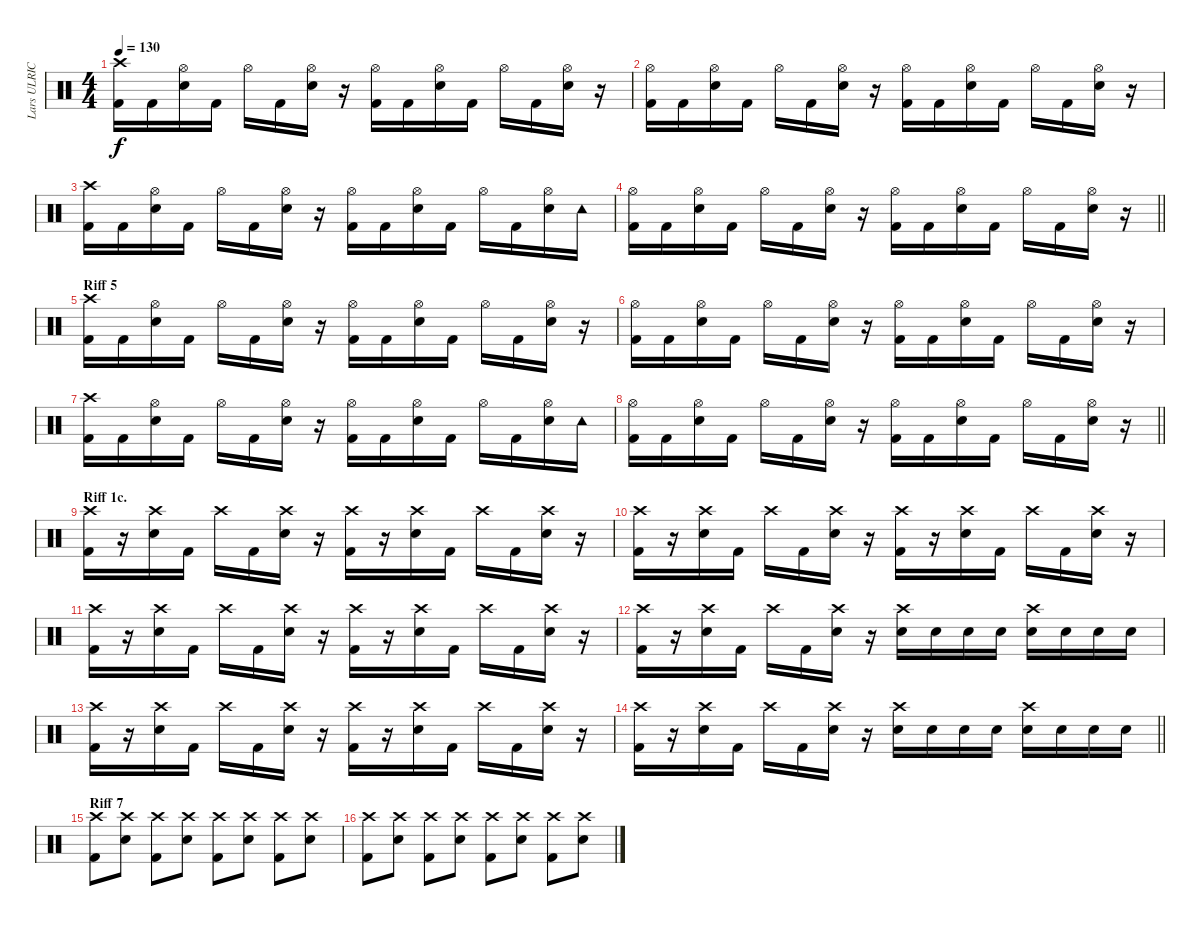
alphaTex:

\track ("Lars ULRICH" "Lars ULRIC") {instrument percussion}
\staff {score}
\articulation defaults
\ts (4 4)
\tempo 130
\clef neutral
\ks c
("Crash high (hit)" "Kick (hit) 2").16{dy f} "Kick (hit) 2".16 ("Hi-Hat (open)" "Snare (hit) 2").16 "Kick (hit) 2".16 "Hi-Hat (open)".16 "Kick (hit) 2".16 ("Hi-Hat (open)" "Snare (hit) 2").16 r.16 ("Hi-Hat (open)" "Kick (hit) 2").16 "Kick (hit) 2".16 ("Hi-Hat (open)" "Snare (hit) 2").16 "Kick (hit) 2".16 "Hi-Hat (open)".16 "Kick (hit) 2".16 ("Hi-Hat (open)" "Snare (hit) 2").16 r.16 |
("Hi-Hat (open)" "Kick (hit) 2").16 "Kick (hit) 2".16 ("Hi-Hat (open)" "Snare (hit) 2").16 "Kick (hit) 2".16 "Hi-Hat (open)".16 "Kick (hit) 2".16 ("Hi-Hat (open)" "Snare (hit) 2").16 r.16 ("Hi-Hat (open)" "Kick (hit) 2").16 "Kick (hit) 2".16 ("Hi-Hat (open)" "Snare (hit) 2").16 "Kick (hit) 2".16 "Hi-Hat (open)".16 "Kick (hit) 2".16 ("Hi-Hat (open)" "Snare (hit) 2").16 r.16 |
("Crash high (hit)" "Kick (hit) 2").16 "Kick (hit) 2".16 ("Hi-Hat (open)" "Snare (hit) 2").16 "Kick (hit) 2".16 "Hi-Hat (open)".16 "Kick (hit) 2".16 ("Hi-Hat (open)" "Snare (hit) 2").16 r.16 ("Hi-Hat (open)" "Kick (hit) 2").16 "Kick (hit) 2".16 ("Hi-Hat (open)" "Snare (hit) 2").16 "Kick (hit) 2".16 "Hi-Hat (open)".16 "Kick (hit) 2".16 ("Hi-Hat (open)" "Snare (hit) 2").16 "Tambourine (hit)".16 |
\barLineRight lightlight
("Hi-Hat (open)" "Kick (hit) 2").16 "Kick (hit) 2".16 ("Hi-Hat (open)" "Snare (hit) 2").16 "Kick (hit) 2".16 "Hi-Hat (open)".16 "Kick (hit) 2".16 ("Hi-Hat (open)" "Snare (hit) 2").16 r.16 ("Hi-Hat (open)" "Kick (hit) 2").16 "Kick (hit) 2".16 ("Hi-Hat (open)" "Snare (hit) 2").16 "Kick (hit) 2".16 "Hi-Hat (open)".16 "Kick (hit) 2".16 ("Hi-Hat (open)" "Snare (hit) 2").16 r.16 |
\section ("" "Riff 5")
("Crash high (hit)" "Kick (hit) 2").16 "Kick (hit) 2".16 ("Hi-Hat (open)" "Snare (hit) 2").16 "Kick (hit) 2".16 "Hi-Hat (open)".16 "Kick (hit) 2".16 ("Hi-Hat (open)" "Snare (hit) 2").16 r.16 ("Hi-Hat (open)" "Kick (hit) 2").16 "Kick (hit) 2".16 ("Hi-Hat (open)" "Snare (hit) 2").16 "Kick (hit) 2".16 "Hi-Hat (open)".16 "Kick (hit) 2".16 ("Hi-Hat (open)" "Snare (hit) 2").16 r.16 |
("Hi-Hat (open)" "Kick (hit) 2").16 "Kick (hit) 2".16 ("Hi-Hat (open)" "Snare (hit) 2").16 "Kick (hit) 2".16 "Hi-Hat (open)".16 "Kick (hit) 2".16 ("Hi-Hat (open)" "Snare (hit) 2").16 r.16 ("Hi-Hat (open)" "Kick (hit) 2").16 "Kick (hit) 2".16 ("Hi-Hat (open)" "Snare (hit) 2").16 "Kick (hit) 2".16 "Hi-Hat (open)".16 "Kick (hit) 2".16 ("Hi-Hat (open)" "Snare (hit) 2").16 r.16 |
("Crash high (hit)" "Kick (hit) 2").16 "Kick (hit) 2".16 ("Hi-Hat (open)" "Snare (hit) 2").16 "Kick (hit) 2".16 "Hi-Hat (open)".16 "Kick (hit) 2".16 ("Hi-Hat (open)" "Snare (hit) 2").16 r.16 ("Hi-Hat (open)" "Kick (hit) 2").16 "Kick (hit) 2".16 ("Hi-Hat (open)" "Snare (hit) 2").16 "Kick (hit) 2".16 "Hi-Hat (open)".16 "Kick (hit) 2".16 ("Hi-Hat (open)" "Snare (hit) 2").16 "Tambourine (hit)".16 |
\barLineRight lightlight
("Hi-Hat (open)" "Kick (hit) 2").16 "Kick (hit) 2".16 ("Hi-Hat (open)" "Snare (hit) 2").16 "Kick (hit) 2".16 "Hi-Hat (open)".16 "Kick (hit) 2".16 ("Hi-Hat (open)" "Snare (hit) 2").16 r.16 ("Hi-Hat (open)" "Kick (hit) 2").16 "Kick (hit) 2".16 ("Hi-Hat (open)" "Snare (hit) 2").16 "Kick (hit) 2".16 "Hi-Hat (open)".16 "Kick (hit) 2".16 ("Hi-Hat (open)" "Snare (hit) 2").16 r.16 |
\section ("" "Riff 1c.")
("Crash high (hit)" "Kick (hit) 2").16 r.16 ("Crash high (hit)" "Snare (hit) 2").16 "Kick (hit) 2".16 "Crash high (hit)".16 "Kick (hit) 2".16 ("Crash high (hit)" "Snare (hit) 2").16 r.16 ("Crash high (hit)" "Kick (hit) 2").16 r.16 ("Crash high (hit)" "Snare (hit) 2").16 "Kick (hit) 2".16 "Crash high (hit)".16 "Kick (hit) 2".16 ("Crash high (hit)" "Snare (hit) 2").16 r.16 |
("Crash high (hit)" "Kick (hit) 2").16 r.16 ("Crash high (hit)" "Snare (hit) 2").16 "Kick (hit) 2".16 "Crash high (hit)".16 "Kick (hit) 2".16 ("Crash high (hit)" "Snare (hit) 2").16 r.16 ("Crash high (hit)" "Kick (hit) 2").16 r.16 ("Crash high (hit)" "Snare (hit) 2").16 "Kick (hit) 2".16 "Crash high (hit)".16 "Kick (hit) 2".16 ("Crash high (hit)" "Snare (hit) 2").16 r.16 |
("Crash high (hit)" "Kick (hit) 2").16 r.16 ("Crash high (hit)" "Snare (hit) 2").16 "Kick (hit) 2".16 "Crash high (hit)".16 "Kick (hit) 2".16 ("Crash high (hit)" "Snare (hit) 2").16 r.16 ("Crash high (hit)" "Kick (hit) 2").16 r.16 ("Crash high (hit)" "Snare (hit) 2").16 "Kick (hit) 2".16 "Crash high (hit)".16 "Kick (hit) 2".16 ("Crash high (hit)" "Snare (hit) 2").16 r.16 |
("Crash high (hit)" "Kick (hit) 2").16 r.16 ("Crash high (hit)" "Snare (hit) 2").16 "Kick (hit) 2".16 "Crash high (hit)".16 "Kick (hit) 2".16 ("Crash high (hit)" "Snare (hit) 2").16 r.16 ("Crash high (hit)" "Snare (hit) 2").16 "Snare (hit) 2".16 "Snare (hit) 2".16 "Snare (hit) 2".16 ("Crash high (hit)" "Snare (hit) 2").16 "Snare (hit) 2".16 "Snare (hit) 2".16 "Snare (hit) 2".16 |
("Crash high (hit)" "Kick (hit) 2").16 r.16 ("Crash high (hit)" "Snare (hit) 2").16 "Kick (hit) 2".16 "Crash high (hit)".16 "Kick (hit) 2".16 ("Crash high (hit)" "Snare (hit) 2").16 r.16 ("Crash high (hit)" "Kick (hit) 2").16 r.16 ("Crash high (hit)" "Snare (hit) 2").16 "Kick (hit) 2".16 "Crash high (hit)".16 "Kick (hit) 2".16 ("Crash high (hit)" "Snare (hit) 2").16 r.16 |
\barLineRight lightlight
("Crash high (hit)" "Kick (hit) 2").16 r.16 ("Crash high (hit)" "Snare (hit) 2").16 "Kick (hit) 2".16 "Crash high (hit)".16 "Kick (hit) 2".16 ("Crash high (hit)" "Snare (hit) 2").16 r.16 ("Crash high (hit)" "Snare (hit) 2").16 "Snare (hit) 2".16 "Snare (hit) 2".16 "Snare (hit) 2".16 ("Crash high (hit)" "Snare (hit) 2").16 "Snare (hit) 2".16 "Snare (hit) 2".16 "Snare (hit) 2".16 |
\section ("" "Riff 7")
("Crash high (hit)" "Kick (hit) 2").8 ("Crash high (hit)" "Snare (hit) 2").8 ("Crash high (hit)" "Kick (hit) 2").8 ("Crash high (hit)" "Snare (hit) 2").8 ("Crash high (hit)" "Kick (hit) 2").8 ("Crash high (hit)" "Snare (hit) 2").8 ("Crash high (hit)" "Kick (hit) 2").8 ("Crash high (hit)" "Snare (hit) 2").8 |
("Crash high (hit)" "Kick (hit) 2").8 ("Crash high (hit)" "Snare (hit) 2").8 ("Crash high (hit)" "Kick (hit) 2").8 ("Crash high (hit)" "Snare (hit) 2").8 ("Crash high (hit)" "Kick (hit) 2").8 ("Crash high (hit)" "Snare (hit) 2").8 ("Crash high (hit)" "Kick (hit) 2").8 ("Crash high (hit)" "Snare (hit) 2").8
